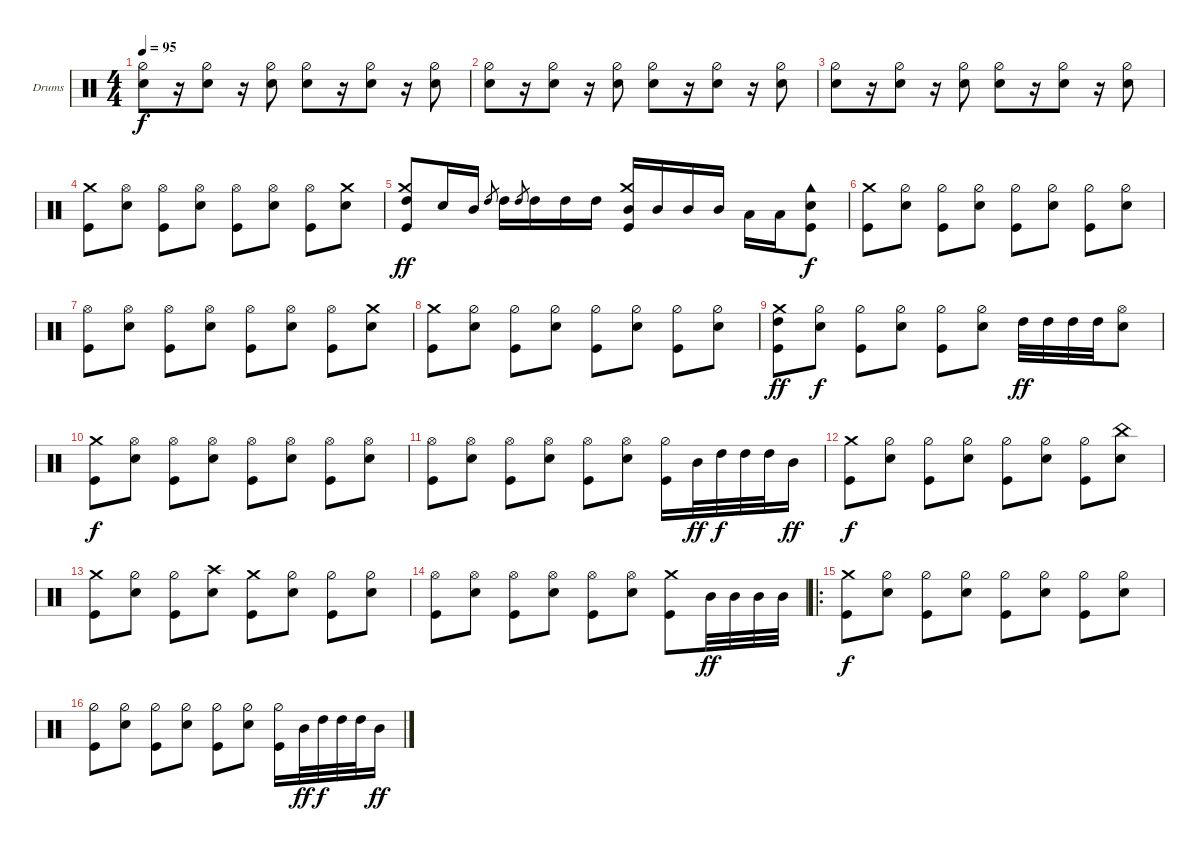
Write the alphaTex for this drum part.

\defaultSystemsLayout 4
\bracketExtendMode groupsimilarinstruments
\firstSystemTrackNameOrientation horizontal
\otherSystemsTrackNameOrientation horizontal
\track ("Drumkit" "Drums") {instrument percussion}
\staff {score}
\articulation defaults
\ts (4 4)
\tempo 95
\clef neutral
\scale
0.333333
\ks c
("Snare (hit) 2" "Hi-Hat (half)").8{dy f} r.16 ("Snare (hit) 2" "Hi-Hat (half)").8 r.16 ("Snare (hit) 2" "Hi-Hat (half)").8 ("Snare (hit) 2" "Hi-Hat (half)").8 r.16 ("Snare (hit) 2" "Hi-Hat (half)").8 r.16 ("Snare (hit) 2" "Hi-Hat (half)").8 |
\scale
0.333333 ("Snare (hit) 2" "Hi-Hat (half)").8 r.16 ("Snare (hit) 2" "Hi-Hat (half)").8 r.16 ("Snare (hit) 2" "Hi-Hat (half)").8 ("Snare (hit) 2" "Hi-Hat (half)").8 r.16 ("Snare (hit) 2" "Hi-Hat (half)").8 r.16 ("Snare (hit) 2" "Hi-Hat (half)").8 |
\scale
0.333333 ("Snare (hit) 2" "Hi-Hat (half)").8 r.16 ("Snare (hit) 2" "Hi-Hat (half)").8 r.16 ("Snare (hit) 2" "Hi-Hat (half)").8 ("Snare (hit) 2" "Hi-Hat (half)").8 r.16 ("Snare (hit) 2" "Hi-Hat (half)").8 r.16 ("Snare (hit) 2" "Hi-Hat (half)").8 |
\scale
0.333333 ("Kick (hit)" "Crash medium (hit)").8 ("Snare (hit) 2" "Hi-Hat (open)").8 ("Kick (hit)" "Hi-Hat (open)").8 ("Snare (hit) 2" "Hi-Hat (open)").8 ("Kick (hit)" "Hi-Hat (open)").8 ("Snare (hit) 2" "Hi-Hat (open)").8 ("Kick (hit)" "Hi-Hat (open)").8 ("Crash medium (hit)" "Snare (hit) 2").8 |
("Kick (hit)" "Crash medium (hit)" "High Tom (hit)").8{dy ff} "Snare (hit) 2".16 "Mid Tom (hit)".16 "High Tom (hit)".8{gr} "High Tom (hit)".16 "High Tom (hit)".8{gr} "High Tom (hit)".16 "High Tom (hit)".16 "High Tom (hit)".16 ("Mid Tom (hit)" "Crash medium (hit)" "Kick (hit)").16 "Mid Tom (hit)".16 "Mid Tom (hit)".16 "Mid Tom (hit)".16 "Low Tom (hit)".16 "Low Tom (hit)".16 ("Snare (hit) 2" "Cowbell high (hit)" "Kick (hit)").8{dy f} |
\scale
0.333333 ("Kick (hit)" "Crash medium (hit)").8 ("Snare (hit) 2" "Hi-Hat (half)").8 ("Kick (hit)" "Hi-Hat (half)").8 ("Snare (hit) 2" "Hi-Hat (half)").8 ("Kick (hit)" "Hi-Hat (half)").8 ("Snare (hit) 2" "Hi-Hat (half)").8 ("Kick (hit)" "Hi-Hat (half)").8 ("Snare (hit) 2" "Hi-Hat (half)").8 |
("Kick (hit)" "Hi-Hat (open)").8 ("Snare (hit) 2" "Hi-Hat (open)").8 ("Kick (hit)" "Hi-Hat (open)").8 ("Snare (hit) 2" "Hi-Hat (open)").8 ("Kick (hit)" "Hi-Hat (open)").8 ("Snare (hit) 2" "Hi-Hat (open)").8 ("Kick (hit)" "Hi-Hat (open)").8 ("Crash medium (hit)" "Snare (hit) 2").8 |
("Kick (hit)" "Crash medium (hit)").8 ("Snare (hit) 2" "Hi-Hat (half)").8 ("Kick (hit)" "Hi-Hat (half)").8 ("Snare (hit) 2" "Hi-Hat (half)").8 ("Kick (hit)" "Hi-Hat (half)").8 ("Snare (hit) 2" "Hi-Hat (half)").8 ("Kick (hit)" "Hi-Hat (half)").8 ("Snare (hit) 2" "Hi-Hat (half)").8 |
("Kick (hit)" "Crash medium (hit)" "High Tom (hit)").8{dy ff} ("Snare (hit) 2" "Hi-Hat (half)").8{dy f} ("Kick (hit)" "Hi-Hat (half)").8 ("Snare (hit) 2" "Hi-Hat (half)").8 ("Kick (hit)" "Hi-Hat (half)").8 ("Snare (hit) 2" "Hi-Hat (half)").8 "High Tom (hit)".32{dy ff} "High Tom (hit)".32 "High Tom (hit)".32 "High Tom (hit)".32 ("Snare (hit) 2" "Hi-Hat (open)").8 |
\scale
0.333333 ("Kick (hit)" "Crash medium (hit)").8{dy f} ("Snare (hit) 2" "Hi-Hat (open)").8 ("Kick (hit)" "Hi-Hat (open)").8 ("Snare (hit) 2" "Hi-Hat (open)").8 ("Kick (hit)" "Hi-Hat (open)").8 ("Snare (hit) 2" "Hi-Hat (open)").8 ("Kick (hit)" "Hi-Hat (open)").8 ("Snare (hit) 2" "Hi-Hat (open)").8 |
\scale
0.333333 ("Kick (hit)" "Hi-Hat (open)").8 ("Snare (hit) 2" "Hi-Hat (open)").8 ("Kick (hit)" "Hi-Hat (open)").8 ("Snare (hit) 2" "Hi-Hat (open)").8 ("Kick (hit)" "Hi-Hat (open)").8 ("Snare (hit) 2" "Hi-Hat (open)").8 ("Kick (hit)" "Hi-Hat (half)").16 "Mid Tom (hit)".32{dy ff} "High Tom (hit)".32{dy f} "High Tom (hit)".32 "High Tom (hit)".32 "Mid Tom (hit)".16{dy ff} |
\scale
0.333333 ("Kick (hit)" "Crash medium (hit)").8{dy f} ("Snare (hit) 2" "Hi-Hat (half)").8 ("Kick (hit)" "Hi-Hat (half)").8 ("Snare (hit) 2" "Hi-Hat (half)").8 ("Kick (hit)" "Hi-Hat (half)").8 ("Snare (hit) 2" "Hi-Hat (half)").8 ("Kick (hit)" "Hi-Hat (half)").8 ("Snare (hit) 2" "China (hit)").8 |
\scale
0.333333 ("Kick (hit)" "Crash medium (hit)").8 ("Snare (hit) 2" "Hi-Hat (half)").8 ("Kick (hit)" "Hi-Hat (half)").8 ("Snare (hit) 2" "Crash high (hit)").8 ("Kick (hit)" "Crash medium (hit)").8 ("Snare (hit) 2" "Hi-Hat (half)").8 ("Kick (hit)" "Hi-Hat (half)").8 ("Snare (hit) 2" "Hi-Hat (half)").8 |
\scale
0.311475 ("Kick (hit)" "Hi-Hat (open)").8 ("Snare (hit) 2" "Hi-Hat (open)").8 ("Kick (hit)" "Hi-Hat (open)").8 ("Snare (hit) 2" "Hi-Hat (open)").8 ("Kick (hit)" "Hi-Hat (open)").8 ("Snare (hit) 2" "Hi-Hat (open)").8 ("Kick (hit)" "Crash medium (hit)").8 "Mid Tom (hit)".32{dy ff} "Mid Tom (hit)".32 "Mid Tom (hit)".32 "Mid Tom (hit)".32 |
\ro
\scale
0.377049 ("Kick (hit)" "Crash medium (hit)").8{dy f} ("Snare (hit) 2" "Hi-Hat (half)").8 ("Kick (hit)" "Hi-Hat (half)").8 ("Snare (hit) 2" "Hi-Hat (half)").8 ("Kick (hit)" "Hi-Hat (half)").8 ("Snare (hit) 2" "Hi-Hat (half)").8 ("Kick (hit)" "Hi-Hat (half)").8 ("Snare (hit) 2" "Hi-Hat (half)").8 |
\scale
0.311475 ("Kick (hit)" "Hi-Hat (half)").8 ("Snare (hit) 2" "Hi-Hat (half)").8 ("Kick (hit)" "Hi-Hat (half)").8 ("Snare (hit) 2" "Hi-Hat (half)").8 ("Kick (hit)" "Hi-Hat (half)").8 ("Snare (hit) 2" "Hi-Hat (half)").8 ("Kick (hit)" "Hi-Hat (half)").16 "Mid Tom (hit)".32{dy ff} "High Tom (hit)".32{dy f} "High Tom (hit)".32 "High Tom (hit)".32 "Mid Tom (hit)".16{dy ff}
